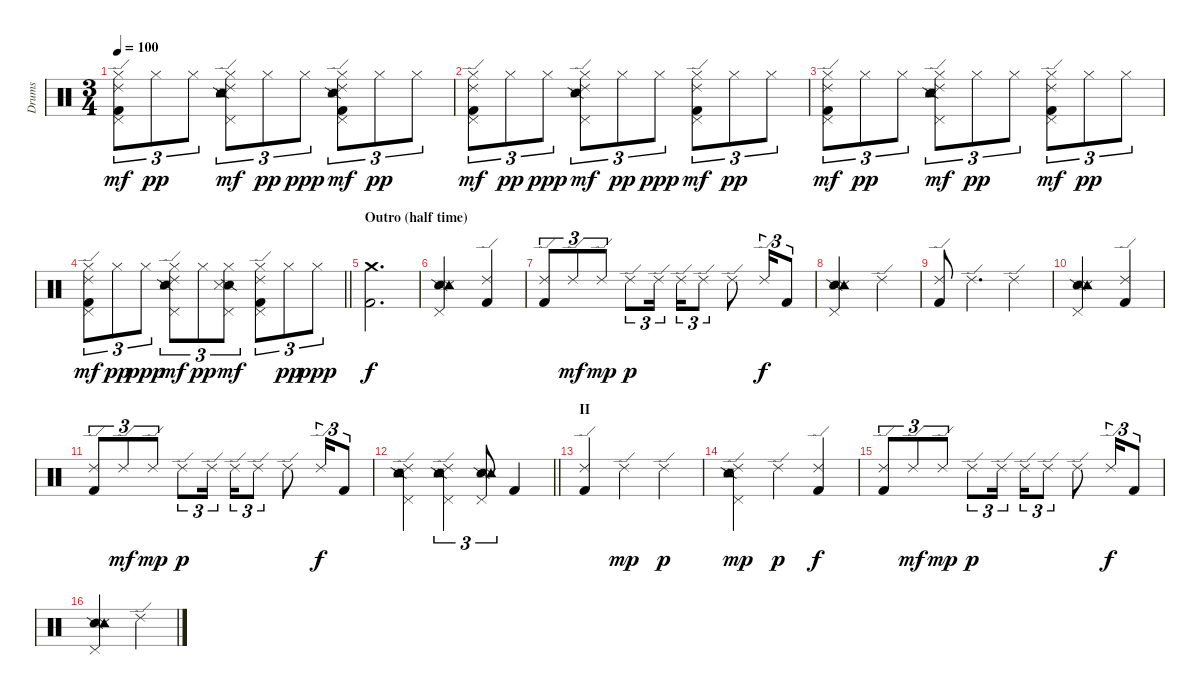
\track ("Drums" "Drums") {instrument percussion}
\staff {score}
\articulation defaults
\ts (3 4)
\tempo 100
\clef neutral
\ks c
("Hi-Hat (closed)" "Ride (edge) 2" "Pedal Hi-Hat (hit)" "Kick (hit) 2").8{tu (3 2) dy mf} "Hi-Hat (closed)".8{tu (3 2) dy pp} "Hi-Hat (closed)".8{tu (3 2)} ("Hi-Hat (closed)" "Ride (edge) 2" "Pedal Hi-Hat (hit)" "Snare (side stick) 2" "Snare (side stick) 3" "Tambourine (hit)").8{tu (3 2) dy mf} "Hi-Hat (closed)".8{tu (3 2) dy pp} "Hi-Hat (closed)".8{tu (3 2) dy ppp} ("Hi-Hat (closed)" "Ride (edge) 2" "Pedal Hi-Hat (hit)" "Snare (side stick) 2" "Snare (side stick) 3" "Kick (hit) 2").8{tu (3 2) dy mf} "Hi-Hat (closed)".8{tu (3 2) dy pp} "Hi-Hat (closed)".8{tu (3 2)} |
("Hi-Hat (closed)" "Ride (edge) 2" "Pedal Hi-Hat (hit)" "Kick (hit) 2").8{tu (3 2) dy mf} "Hi-Hat (closed)".8{tu (3 2) dy pp} "Hi-Hat (closed)".8{tu (3 2) dy ppp} ("Hi-Hat (closed)" "Ride (edge) 2" "Pedal Hi-Hat (hit)" "Snare (side stick) 2" "Snare (side stick) 3").8{tu (3 2) dy mf} "Hi-Hat (closed)".8{tu (3 2) dy pp} "Hi-Hat (closed)".8{tu (3 2) dy ppp} ("Hi-Hat (closed)" "Ride (edge) 2" "Pedal Hi-Hat (hit)" "Kick (hit) 2").8{tu (3 2) dy mf} "Hi-Hat (closed)".8{tu (3 2) dy pp} "Hi-Hat (closed)".8{tu (3 2)} |
("Hi-Hat (closed)" "Ride (edge) 2" "Pedal Hi-Hat (hit)" "Kick (hit) 2").8{tu (3 2) dy mf} "Hi-Hat (closed)".8{tu (3 2) dy pp} "Hi-Hat (closed)".8{tu (3 2)} ("Hi-Hat (closed)" "Ride (edge) 2" "Pedal Hi-Hat (hit)" "Snare (side stick) 2" "Snare (side stick) 3" "Tambourine (hit)").8{tu (3 2) dy mf} "Hi-Hat (closed)".8{tu (3 2) dy pp} "Hi-Hat (closed)".8{tu (3 2)} ("Hi-Hat (closed)" "Ride (edge) 2" "Pedal Hi-Hat (hit)" "Kick (hit) 2").8{tu (3 2) dy mf} "Hi-Hat (closed)".8{tu (3 2) dy pp} "Hi-Hat (closed)".8{tu (3 2)} |
\barLineRight lightlight
("Hi-Hat (closed)" "Ride (edge) 2" "Pedal Hi-Hat (hit)" "Kick (hit) 2").8{tu (3 2) dy mf} "Hi-Hat (closed)".8{tu (3 2) dy pp} "Hi-Hat (closed)".8{tu (3 2) dy ppp} ("Hi-Hat (closed)" "Ride (edge) 2" "Pedal Hi-Hat (hit)" "Snare (side stick) 2" "Snare (side stick) 3").8{tu (3 2) dy mf} "Hi-Hat (closed)".8{tu (3 2) dy pp} ("Hi-Hat (closed)" "Pedal Hi-Hat (hit)" "Snare (side stick) 2" "Snare (side stick) 3").8{tu (3 2) dy mf} ("Hi-Hat (closed)" "Ride (edge) 2" "Pedal Hi-Hat (hit)" "Kick (hit) 2").8{tu (3 2)} "Hi-Hat (closed)".8{tu (3 2) dy pp} "Hi-Hat (closed)".8{tu (3 2) dy ppp} |
\section ("" "Outro (half time)")
("Crash medium (hit)" "Kick (hit) 2").2{d dy f} |
("Pedal Hi-Hat (hit)" "Snare (side stick) 2" "Snare (side stick) 3" "Tambourine (hit)").2 ("Ride (edge) 2" "Kick (hit) 2").4 |
("Ride (edge) 2" "Kick (hit) 2").8{tu (3 2)} "Ride (edge) 2".8{tu (3 2) dy mf} "Ride (edge) 2".8{tu (3 2) dy mp} "Ride (edge) 2".8{tu (3 2) dy p} "Ride (edge) 2".16{tu (3 2) beam splitsecondary} "Ride (edge) 2".16{tu (3 2)} "Ride (edge) 2".8{tu (3 2)} "Ride (edge) 2".8 "Ride (edge) 2".16{tu (3 2) dy f} "Kick (hit) 2".8{tu (3 2)} |
("Pedal Hi-Hat (hit)" "Snare (side stick) 2" "Snare (side stick) 3" "Tambourine (hit)").2 "Ride (edge) 2".4 |
("Ride (edge) 2" "Kick (hit) 2").8 "Ride (edge) 2".4{d} "Ride (edge) 2".4 |
("Pedal Hi-Hat (hit)" "Snare (side stick) 2" "Snare (side stick) 3" "Tambourine (hit)").2 ("Ride (edge) 2" "Kick (hit) 2").4 |
("Ride (edge) 2" "Kick (hit) 2").8{tu (3 2)} "Ride (edge) 2".8{tu (3 2) dy mf} "Ride (edge) 2".8{tu (3 2) dy mp} "Ride (edge) 2".8{tu (3 2) dy p} "Ride (edge) 2".16{tu (3 2) beam splitsecondary} "Ride (edge) 2".16{tu (3 2)} "Ride (edge) 2".8{tu (3 2)} "Ride (edge) 2".8 "Ride (edge) 2".16{tu (3 2) dy f} "Kick (hit) 2".8{tu (3 2)} |
\barLineRight lightlight
("Ride (edge) 2" "Pedal Hi-Hat (hit)" "Snare (side stick) 2" "Snare (side stick) 3" "Tambourine (hit)").4 ("Ride (edge) 2" "Pedal Hi-Hat (hit)" "Snare (side stick) 2" "Snare (side stick) 3" "Tambourine (hit)").4{tu (3 2)} ("Pedal Hi-Hat (hit)" "Snare (side stick) 2" "Snare (side stick) 3" "Tambourine (hit)").8{tu (3 2)} "Kick (hit) 2".4 |
\section ("" "II")
("Ride (edge) 2" "Kick (hit) 2").4 "Ride (edge) 2".4{dy mp} "Ride (edge) 2".4{dy p} |
("Ride (edge) 2" "Pedal Hi-Hat (hit)" "Snare (side stick) 2" "Snare (side stick) 3" "Tambourine (hit)").4{dy mp} "Ride (edge) 2".4{dy p} ("Ride (edge) 2" "Kick (hit) 2").4{dy f} |
("Ride (edge) 2" "Kick (hit) 2").8{tu (3 2)} "Ride (edge) 2".8{tu (3 2) dy mf} "Ride (edge) 2".8{tu (3 2) dy mp} "Ride (edge) 2".8{tu (3 2) dy p} "Ride (edge) 2".16{tu (3 2) beam splitsecondary} "Ride (edge) 2".16{tu (3 2)} "Ride (edge) 2".8{tu (3 2)} "Ride (edge) 2".8 "Ride (edge) 2".16{tu (3 2) dy f} "Kick (hit) 2".8{tu (3 2)} |
("Pedal Hi-Hat (hit)" "Snare (side stick) 2" "Snare (side stick) 3" "Tambourine (hit)").2 "Ride (edge) 2".4
